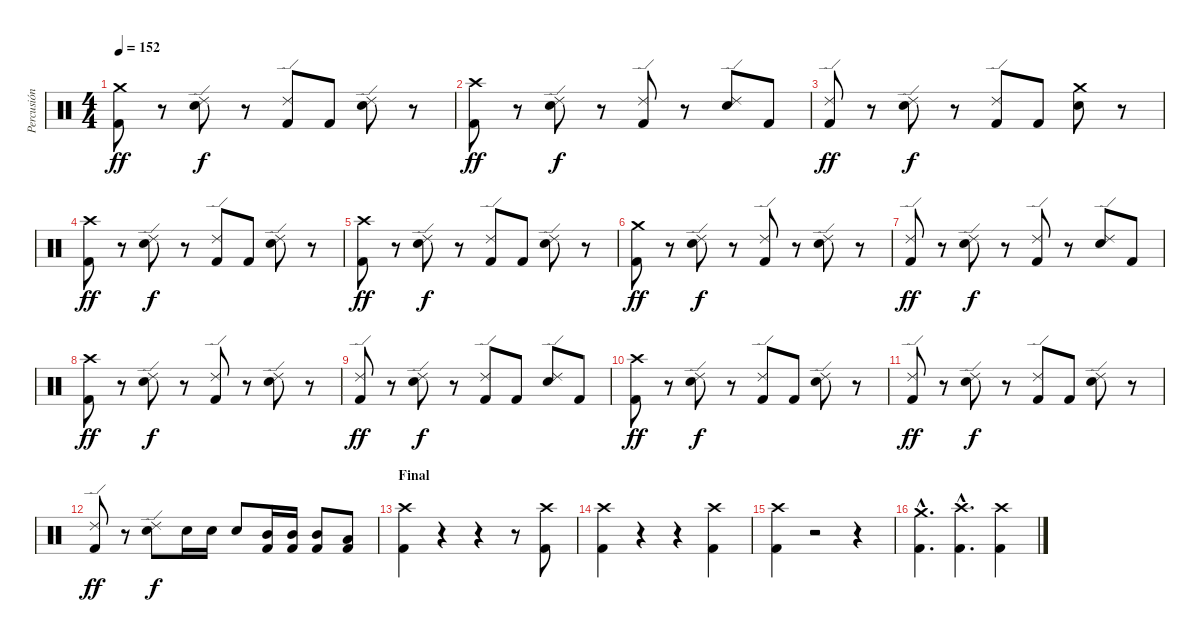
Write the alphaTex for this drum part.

\track ("Percusión" "Percusión") {instrument percussion}
\staff {score}
\articulation defaults
\ts (4 4)
\tempo 152
\clef neutral
\ks c
("Crash medium (hit)" "Kick (hit) 2").8{dy ff} r.8 ("Ride (edge) 2" "Snare (hit) 2").8{dy f} r.8 ("Ride (edge) 2" "Kick (hit) 2").8 "Kick (hit) 2".8 ("Ride (edge) 2" "Snare (hit) 2").8 r.8 |
("Crash high (hit)" "Kick (hit) 2").8{dy ff} r.8 ("Ride (edge) 2" "Snare (hit) 2").8{dy f} r.8 ("Ride (edge) 2" "Kick (hit) 2").8 r.8 ("Ride (edge) 2" "Snare (hit) 2").8 "Kick (hit) 2".8 |
("Ride (edge) 2" "Kick (hit) 2").8{dy ff} r.8 ("Ride (edge) 2" "Snare (hit) 2").8{dy f} r.8 ("Ride (edge) 2" "Kick (hit) 2").8 "Kick (hit) 2".8 ("Crash medium (hit)" "Snare (hit) 2").8 r.8 |
("Crash high (hit)" "Kick (hit) 2").8{dy ff} r.8 ("Ride (edge) 2" "Snare (hit) 2").8{dy f} r.8 ("Ride (edge) 2" "Kick (hit) 2").8 "Kick (hit) 2".8 ("Ride (edge) 2" "Snare (hit) 2").8 r.8 |
("Crash high (hit)" "Kick (hit) 2").8{dy ff} r.8 ("Ride (edge) 2" "Snare (hit) 2").8{dy f} r.8 ("Ride (edge) 2" "Kick (hit) 2").8 "Kick (hit) 2".8 ("Ride (edge) 2" "Snare (hit) 2").8 r.8 |
("Crash medium (hit)" "Kick (hit) 2").8{dy ff} r.8 ("Ride (edge) 2" "Snare (hit) 2").8{dy f} r.8 ("Ride (edge) 2" "Kick (hit) 2").8 r.8 ("Ride (edge) 2" "Snare (hit) 2").8 r.8 |
("Ride (edge) 2" "Kick (hit) 2").8{dy ff} r.8 ("Ride (edge) 2" "Snare (hit) 2").8{dy f} r.8 ("Ride (edge) 2" "Kick (hit) 2").8 r.8 ("Ride (edge) 2" "Snare (hit) 2").8 "Kick (hit) 2".8 |
("Crash high (hit)" "Kick (hit) 2").8{dy ff} r.8 ("Ride (edge) 2" "Snare (hit) 2").8{dy f} r.8 ("Ride (edge) 2" "Kick (hit) 2").8 r.8 ("Ride (edge) 2" "Snare (hit) 2").8 r.8 |
("Ride (edge) 2" "Kick (hit) 2").8{dy ff} r.8 ("Ride (edge) 2" "Snare (hit) 2").8{dy f} r.8 ("Ride (edge) 2" "Kick (hit) 2").8 "Kick (hit) 2".8 ("Ride (edge) 2" "Snare (hit) 2").8 "Kick (hit) 2".8 |
("Crash high (hit)" "Kick (hit) 2").8{dy ff} r.8 ("Ride (edge) 2" "Snare (hit) 2").8{dy f} r.8 ("Ride (edge) 2" "Kick (hit) 2").8 "Kick (hit) 2".8 ("Ride (edge) 2" "Snare (hit) 2").8 r.8 |
("Ride (edge) 2" "Kick (hit) 2").8{dy ff} r.8 ("Ride (edge) 2" "Snare (hit) 2").8{dy f} r.8 ("Ride (edge) 2" "Kick (hit) 2").8 "Kick (hit) 2".8 ("Ride (edge) 2" "Snare (hit) 2").8 r.8 |
("Ride (edge) 2" "Kick (hit) 2").8{dy ff} r.8 ("Ride (edge) 2" "Snare (hit) 2").8{dy f} "Snare (hit) 2".16 "Snare (hit) 2".16 "Snare (hit) 2".8 ("Mid Tom (hit)" "Kick (hit) 2").16 ("Mid Tom (hit)" "Kick (hit) 2").16 ("Mid Tom (hit)" "Kick (hit) 2").8 ("Low Tom (hit)" "Kick (hit) 2").8 |
\section ("" "Final")
("Crash high (hit)" "Kick (hit) 2").4 r.4 r.4 r.8 ("Crash high (hit)" "Kick (hit) 2").8 |
("Crash high (hit)" "Kick (hit) 2").4 r.4 r.4 ("Crash high (hit)" "Kick (hit) 2").4 |
("Crash high (hit)" "Kick (hit) 2").4 r.2 r.4 |
("Crash medium (hit)"{hac} "Kick (hit) 2"{hac}).4{d} ("Crash high (hit)"{hac} "Kick (hit) 2"{hac}).4{d} ("Crash high (hit)" "Kick (hit) 2").4
